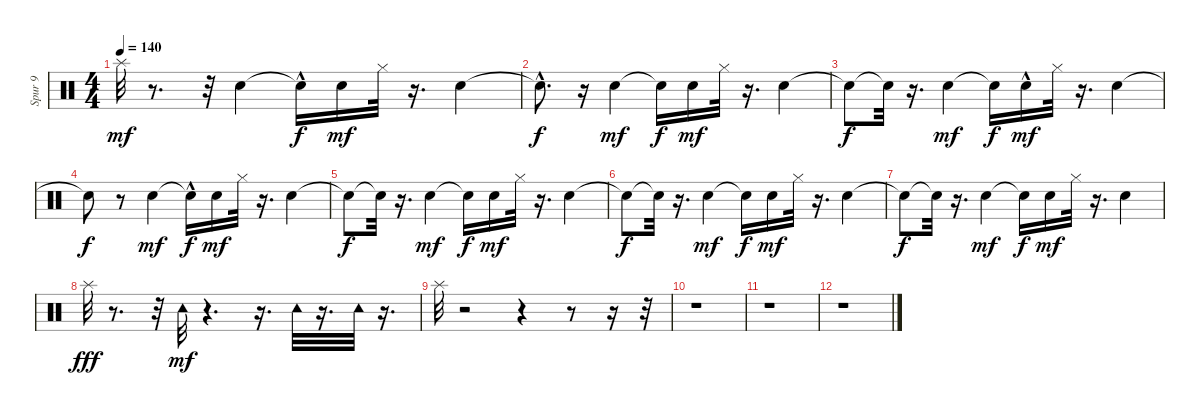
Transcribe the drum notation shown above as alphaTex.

\track ("Spur 9" "Spur 9") {instrument percussion}
\staff {score}
\articulation defaults
\ts (4 4)
\tempo 140
\clef neutral
\ks c "Splash (hit)".32{dy mf}
r.8{d} r.32 "Electric Snare (hit)".4 "Snare (hit)"{hac t}.16{dy f} "Snare (hit)".16{dy mf} "Hi-Hat (closed)".32 r.16{d} "Electric Snare (hit)".4 |
"Snare (hit)"{hac t}.8{d dy f} r.16 "Electric Snare (hit)".4{dy mf} "Snare (hit)"{t}.16{dy f} "Snare (hit)".16{dy mf} "Hi-Hat (closed)".32 r.16{d} "Electric Snare (hit)".4 |
"Snare (hit)"{t}.8{dy f} "Snare (hit)"{t}.32 r.16{d} "Electric Snare (hit)".4{dy mf} "Snare (hit)"{t}.16{dy f} "Snare (hit)"{hac}.16{dy mf} "Hi-Hat (closed)".32 r.16{d} "Electric Snare (hit)".4 |
"Snare (hit)"{t}.8{dy f} r.8 "Electric Snare (hit)".4{dy mf} "Snare (hit)"{hac t}.16{dy f} "Snare (hit)".16{dy mf} "Hi-Hat (closed)".32 r.16{d} "Electric Snare (hit)".4 |
"Snare (hit)"{t}.8{dy f} "Snare (hit)"{t}.32 r.16{d} "Electric Snare (hit)".4{dy mf} "Snare (hit)"{t}.16{dy f} "Snare (hit)".16{dy mf} "Hi-Hat (closed)".32 r.16{d} "Electric Snare (hit)".4 |
"Snare (hit)"{t}.8{dy f} "Snare (hit)"{t}.32 r.16{d} "Electric Snare (hit)".4{dy mf} "Snare (hit)"{t}.16{dy f} "Snare (hit)".16{dy mf} "Hi-Hat (closed)".32 r.16{d} "Electric Snare (hit)".4 |
"Snare (hit)"{t}.8{dy f} "Snare (hit)"{t}.32 r.16{d} "Electric Snare (hit)".4{dy mf} "Snare (hit)"{t}.16{dy f} "Snare (hit)".16{dy mf} "Hi-Hat (closed)".32 r.16{d} "Electric Snare (hit)".4 |
"Splash (hit)".32{dy fff} r.8{d} r.32 "Tambourine (hit)".32{dy mf} r.4{d} r.16{d} "Tambourine (hit)".32 r.16{d} "Tambourine (hit)".32 r.16{d} |
"Splash (hit)".32 r.2 r.4 r.8 r.16 r.32 |
r.1 |
r.1 |
r.1
